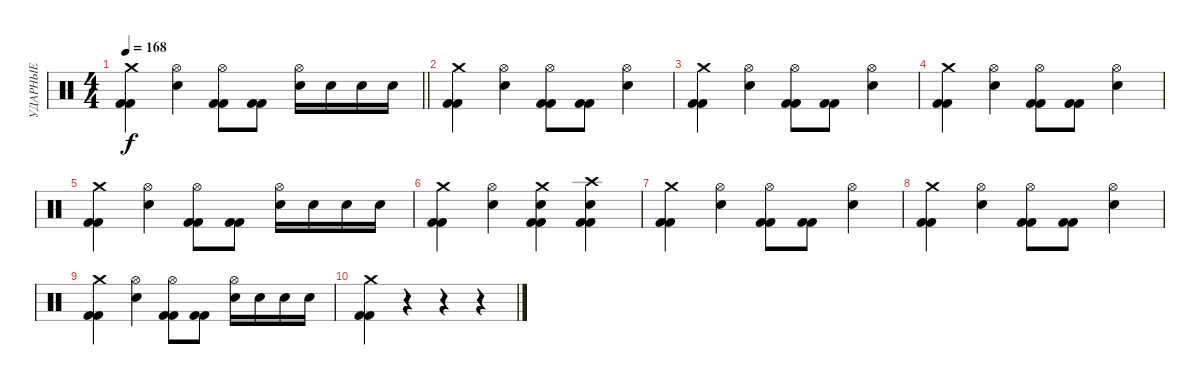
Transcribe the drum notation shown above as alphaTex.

\track ("УДАРНЫЕ" "УДАРНЫЕ") {instrument percussion}
\staff {score}
\articulation defaults
\ts (4 4)
\tempo 168
\clef neutral
\barLineRight lightlight
\ks c
("Crash medium (hit)" "Kick (hit) 2" "Kick (hit) 2").4{dy f} ("Hi-Hat (open)" "Snare (hit) 2").4 ("Hi-Hat (open)" "Kick (hit) 2" "Kick (hit) 2").8 ("Kick (hit) 2" "Kick (hit) 2").8 ("Hi-Hat (open)" "Snare (hit) 2").16 "Snare (hit) 2".16 "Snare (hit) 2".16 "Snare (hit) 2".16 |
\section ("" "")
("Crash medium (hit)" "Kick (hit) 2" "Kick (hit) 2").4 ("Hi-Hat (open)" "Snare (hit) 2").4 ("Hi-Hat (open)" "Kick (hit) 2" "Kick (hit) 2").8 ("Kick (hit) 2" "Kick (hit) 2").8 ("Hi-Hat (open)" "Snare (hit) 2").4 |
("Crash medium (hit)" "Kick (hit) 2" "Kick (hit) 2").4 ("Hi-Hat (open)" "Snare (hit) 2").4 ("Hi-Hat (open)" "Kick (hit) 2" "Kick (hit) 2").8 ("Kick (hit) 2" "Kick (hit) 2").8 ("Hi-Hat (open)" "Snare (hit) 2").4 |
("Crash medium (hit)" "Kick (hit) 2" "Kick (hit) 2").4 ("Hi-Hat (open)" "Snare (hit) 2").4 ("Hi-Hat (open)" "Kick (hit) 2" "Kick (hit) 2").8 ("Kick (hit) 2" "Kick (hit) 2").8 ("Hi-Hat (open)" "Snare (hit) 2").4 |
("Crash medium (hit)" "Kick (hit) 2" "Kick (hit) 2").4 ("Hi-Hat (open)" "Snare (hit) 2").4 ("Hi-Hat (open)" "Kick (hit) 2" "Kick (hit) 2").8 ("Kick (hit) 2" "Kick (hit) 2").8 ("Hi-Hat (open)" "Snare (hit) 2").16 "Snare (hit) 2".16 "Snare (hit) 2".16 "Snare (hit) 2".16 |
("Crash medium (hit)" "Kick (hit) 2" "Kick (hit) 2").4 ("Hi-Hat (open)" "Snare (hit) 2").4 ("Crash medium (hit)" "Snare (hit) 2" "Kick (hit) 2" "Kick (hit) 2").4 ("Crash high (hit)" "Snare (hit) 2" "Kick (hit) 2" "Kick (hit) 2").4 |
("Crash medium (hit)" "Kick (hit) 2" "Kick (hit) 2").4 ("Hi-Hat (open)" "Snare (hit) 2").4 ("Hi-Hat (open)" "Kick (hit) 2" "Kick (hit) 2").8 ("Kick (hit) 2" "Kick (hit) 2").8 ("Hi-Hat (open)" "Snare (hit) 2").4 |
("Crash medium (hit)" "Kick (hit) 2" "Kick (hit) 2").4 ("Hi-Hat (open)" "Snare (hit) 2").4 ("Hi-Hat (open)" "Kick (hit) 2" "Kick (hit) 2").8 ("Kick (hit) 2" "Kick (hit) 2").8 ("Hi-Hat (open)" "Snare (hit) 2").4 |
("Crash medium (hit)" "Kick (hit) 2" "Kick (hit) 2").4 ("Hi-Hat (open)" "Snare (hit) 2").4 ("Hi-Hat (open)" "Kick (hit) 2" "Kick (hit) 2").8 ("Kick (hit) 2" "Kick (hit) 2").8 ("Hi-Hat (open)" "Snare (hit) 2").16 "Snare (hit) 2".16 "Snare (hit) 2".16 "Snare (hit) 2".16 |
("Crash medium (hit)" "Kick (hit) 2" "Kick (hit) 2").4 r.4 r.4 r.4
